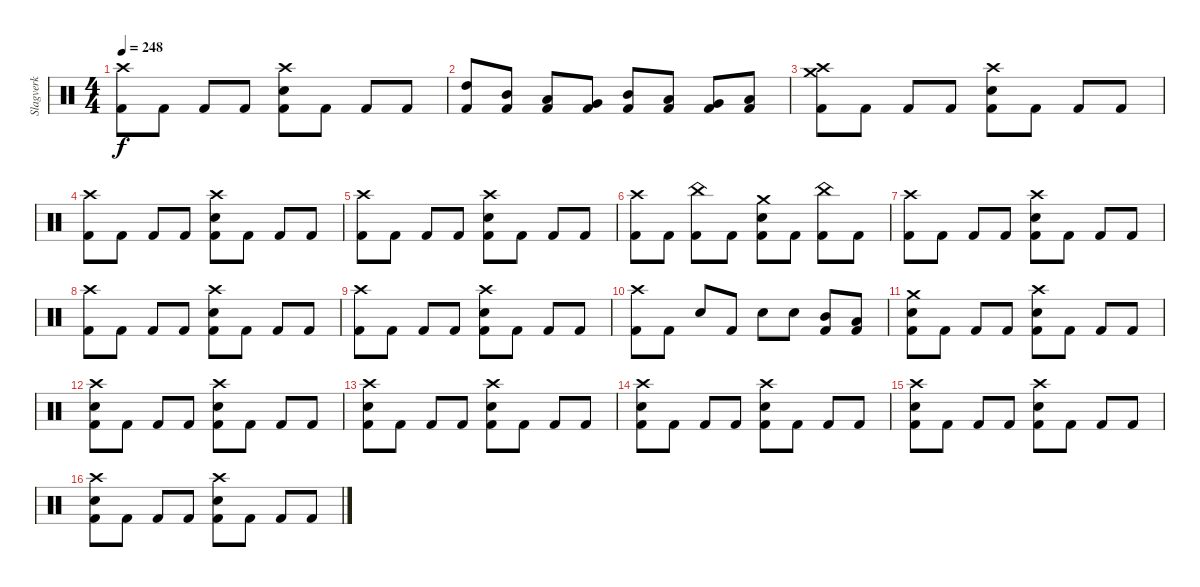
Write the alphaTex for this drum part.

\track ("Slagverk" "Slagverk") {instrument percussion}
\staff {score}
\articulation defaults
\ts (4 4)
\tempo 248
\clef neutral
\ks c
("Crash high (hit)" "Kick (hit) 2").8{dy f} "Kick (hit) 2".8 "Kick (hit) 2".8 "Kick (hit) 2".8 ("Crash high (hit)" "Snare (hit) 2" "Kick (hit) 2").8 "Kick (hit) 2".8 "Kick (hit) 2".8 "Kick (hit) 2".8 |
("High Tom (hit)" "Kick (hit) 2").8 ("Mid Tom (hit)" "Kick (hit) 2").8 ("Low Tom (hit)" "Kick (hit) 2").8 ("Very Low Tom (hit)" "Kick (hit) 2").8 ("Mid Tom (hit)" "Kick (hit) 2").8 ("Low Tom (hit)" "Kick (hit) 2").8 ("Very Low Tom (hit)" "Kick (hit) 2").8 ("Low Floor Tom (hit)" "Kick (hit) 2").8 |
("Crash medium (hit)" "Crash high (hit)" "Kick (hit) 2").8 "Kick (hit) 2".8 "Kick (hit) 2".8 "Kick (hit) 2".8 ("Crash high (hit)" "Snare (hit) 2" "Kick (hit) 2").8 "Kick (hit) 2".8 "Kick (hit) 2".8 "Kick (hit) 2".8 |
("Crash high (hit)" "Kick (hit) 2").8 "Kick (hit) 2".8 "Kick (hit) 2".8 "Kick (hit) 2".8 ("Crash high (hit)" "Snare (hit) 2" "Kick (hit) 2").8 "Kick (hit) 2".8 "Kick (hit) 2".8 "Kick (hit) 2".8 |
("Crash high (hit)" "Kick (hit) 2").8 "Kick (hit) 2".8 "Kick (hit) 2".8 "Kick (hit) 2".8 ("Crash high (hit)" "Snare (hit) 2" "Kick (hit) 2").8 "Kick (hit) 2".8 "Kick (hit) 2".8 "Kick (hit) 2".8 |
("Crash high (hit)" "Kick (hit) 2").8 "Kick (hit) 2".8 ("China (hit)" "Kick (hit) 2").8 "Kick (hit) 2".8 ("Crash medium (hit)" "Snare (hit) 2" "Kick (hit) 2").8 "Kick (hit) 2".8 ("China (hit)" "Kick (hit) 2").8 "Kick (hit) 2".8 |
("Crash high (hit)" "Kick (hit) 2").8 "Kick (hit) 2".8 "Kick (hit) 2".8 "Kick (hit) 2".8 ("Crash high (hit)" "Snare (hit) 2" "Kick (hit) 2").8 "Kick (hit) 2".8 "Kick (hit) 2".8 "Kick (hit) 2".8 |
("Crash high (hit)" "Kick (hit) 2").8 "Kick (hit) 2".8 "Kick (hit) 2".8 "Kick (hit) 2".8 ("Crash high (hit)" "Snare (hit) 2" "Kick (hit) 2").8 "Kick (hit) 2".8 "Kick (hit) 2".8 "Kick (hit) 2".8 |
("Crash high (hit)" "Kick (hit) 2").8 "Kick (hit) 2".8 "Kick (hit) 2".8 "Kick (hit) 2".8 ("Crash high (hit)" "Snare (hit) 2" "Kick (hit) 2").8 "Kick (hit) 2".8 "Kick (hit) 2".8 "Kick (hit) 2".8 |
("Crash high (hit)" "Kick (hit) 2").8 "Kick (hit) 2".8 "Snare (hit) 2".8 "Kick (hit) 2".8 "Snare (hit) 2".8 "Snare (hit) 2".8 ("Mid Tom (hit)" "Kick (hit) 2").8 ("Low Tom (hit)" "Kick (hit) 2").8 |
("Crash medium (hit)" "Snare (hit) 2" "Kick (hit) 2").8 "Kick (hit) 2".8 "Kick (hit) 2".8 "Kick (hit) 2".8 ("Crash high (hit)" "Snare (hit) 2" "Kick (hit) 2").8 "Kick (hit) 2".8 "Kick (hit) 2".8 "Kick (hit) 2".8 |
("Crash high (hit)" "Snare (hit) 2" "Kick (hit) 2").8 "Kick (hit) 2".8 "Kick (hit) 2".8 "Kick (hit) 2".8 ("Crash high (hit)" "Snare (hit) 2" "Kick (hit) 2").8 "Kick (hit) 2".8 "Kick (hit) 2".8 "Kick (hit) 2".8 |
("Crash high (hit)" "Snare (hit) 2" "Kick (hit) 2").8 "Kick (hit) 2".8 "Kick (hit) 2".8 "Kick (hit) 2".8 ("Crash high (hit)" "Snare (hit) 2" "Kick (hit) 2").8 "Kick (hit) 2".8 "Kick (hit) 2".8 "Kick (hit) 2".8 |
("Crash high (hit)" "Snare (hit) 2" "Kick (hit) 2").8 "Kick (hit) 2".8 "Kick (hit) 2".8 "Kick (hit) 2".8 ("Crash high (hit)" "Snare (hit) 2" "Kick (hit) 2").8 "Kick (hit) 2".8 "Kick (hit) 2".8 "Kick (hit) 2".8 |
("Crash high (hit)" "Snare (hit) 2" "Kick (hit) 2").8 "Kick (hit) 2".8 "Kick (hit) 2".8 "Kick (hit) 2".8 ("Crash high (hit)" "Snare (hit) 2" "Kick (hit) 2").8 "Kick (hit) 2".8 "Kick (hit) 2".8 "Kick (hit) 2".8 |
("Crash high (hit)" "Snare (hit) 2" "Kick (hit) 2").8 "Kick (hit) 2".8 "Kick (hit) 2".8 "Kick (hit) 2".8 ("Crash high (hit)" "Snare (hit) 2" "Kick (hit) 2").8 "Kick (hit) 2".8 "Kick (hit) 2".8 "Kick (hit) 2".8
